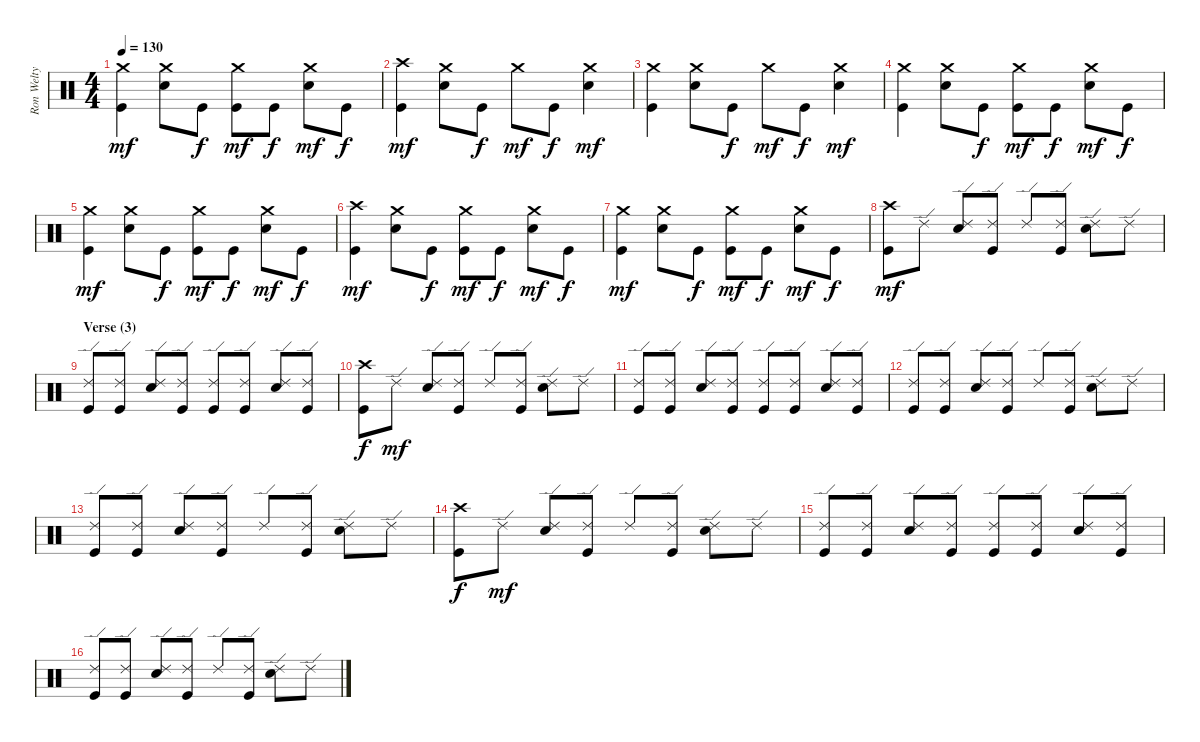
\track ("Ron Welty" "Ron Welty") {instrument percussion}
\staff {score}
\articulation defaults
\ts (4 4)
\tempo 130
\clef neutral
\ks c
("Kick (hit)" "Crash medium (hit)").4{dy mf} ("Electric Snare (hit)" "Crash medium (hit)").8 "Kick (hit)".8{dy f} ("Kick (hit)" "Crash medium (hit)").8{dy mf} "Kick (hit)".8{dy f} ("Electric Snare (hit)" "Crash medium (hit)").8{dy mf} "Kick (hit)".8{dy f} |
("Kick (hit)" "Crash high (hit)").4{dy mf} ("Electric Snare (hit)" "Crash medium (hit)").8 "Kick (hit)".8{dy f} "Crash medium (hit)".8{dy mf} "Kick (hit)".8{dy f} ("Electric Snare (hit)" "Crash medium (hit)").4{dy mf} |
("Kick (hit)" "Crash medium (hit)").4 ("Electric Snare (hit)" "Crash medium (hit)").8 "Kick (hit)".8{dy f} "Crash medium (hit)".8{dy mf} "Kick (hit)".8{dy f} ("Electric Snare (hit)" "Crash medium (hit)").4{dy mf} |
("Kick (hit)" "Crash medium (hit)").4 ("Electric Snare (hit)" "Crash medium (hit)").8 "Kick (hit)".8{dy f} ("Kick (hit)" "Crash medium (hit)").8{dy mf} "Kick (hit)".8{dy f} ("Electric Snare (hit)" "Crash medium (hit)").8{dy mf} "Kick (hit)".8{dy f} |
("Kick (hit)" "Crash medium (hit)").4{dy mf} ("Electric Snare (hit)" "Crash medium (hit)").8 "Kick (hit)".8{dy f} ("Kick (hit)" "Crash medium (hit)").8{dy mf} "Kick (hit)".8{dy f} ("Electric Snare (hit)" "Crash medium (hit)").8{dy mf} "Kick (hit)".8{dy f} |
("Kick (hit)" "Crash high (hit)").4{dy mf} ("Electric Snare (hit)" "Crash medium (hit)").8 "Kick (hit)".8{dy f} ("Kick (hit)" "Crash medium (hit)").8{dy mf} "Kick (hit)".8{dy f} ("Electric Snare (hit)" "Crash medium (hit)").8{dy mf} "Kick (hit)".8{dy f} |
("Kick (hit)" "Crash medium (hit)").4{dy mf} ("Electric Snare (hit)" "Crash medium (hit)").8 "Kick (hit)".8{dy f} ("Kick (hit)" "Crash medium (hit)").8{dy mf} "Kick (hit)".8{dy f} ("Electric Snare (hit)" "Crash medium (hit)").8{dy mf} "Kick (hit)".8{dy f} |
("Kick (hit)" "Crash high (hit)").8{dy mf} "Ride (edge) 2".8 ("Electric Snare (hit)" "Ride (edge) 2").8 ("Kick (hit)" "Ride (edge) 2").8 "Ride (edge) 2".8 ("Kick (hit)" "Ride (edge) 2").8 ("Electric Snare (hit)" "Ride (edge) 2").8 "Ride (edge) 2".8 |
\section ("" "Verse (3)")
("Kick (hit)" "Ride (edge) 2").8 ("Kick (hit)" "Ride (edge) 2").8 ("Electric Snare (hit)" "Ride (edge) 2").8 ("Kick (hit)" "Ride (edge) 2").8 ("Kick (hit)" "Ride (edge) 2").8 ("Kick (hit)" "Ride (edge) 2").8 ("Electric Snare (hit)" "Ride (edge) 2").8 ("Kick (hit)" "Ride (edge) 2").8 |
("Kick (hit)" "Crash high (hit)").8{dy f} "Ride (edge) 2".8{dy mf} ("Electric Snare (hit)" "Ride (edge) 2").8 ("Kick (hit)" "Ride (edge) 2").8 "Ride (edge) 2".8 ("Kick (hit)" "Ride (edge) 2").8 ("Electric Snare (hit)" "Ride (edge) 2").8 "Ride (edge) 2".8 |
("Kick (hit)" "Ride (edge) 2").8 ("Kick (hit)" "Ride (edge) 2").8 ("Electric Snare (hit)" "Ride (edge) 2").8 ("Kick (hit)" "Ride (edge) 2").8 ("Kick (hit)" "Ride (edge) 2").8 ("Kick (hit)" "Ride (edge) 2").8 ("Electric Snare (hit)" "Ride (edge) 2").8 ("Kick (hit)" "Ride (edge) 2").8 |
("Kick (hit)" "Ride (edge) 2").8 ("Kick (hit)" "Ride (edge) 2").8 ("Electric Snare (hit)" "Ride (edge) 2").8 ("Kick (hit)" "Ride (edge) 2").8 "Ride (edge) 2".8 ("Kick (hit)" "Ride (edge) 2").8 ("Electric Snare (hit)" "Ride (edge) 2").8 "Ride (edge) 2".8 |
("Kick (hit)" "Ride (edge) 2").8 ("Kick (hit)" "Ride (edge) 2").8 ("Electric Snare (hit)" "Ride (edge) 2").8 ("Kick (hit)" "Ride (edge) 2").8 "Ride (edge) 2".8 ("Kick (hit)" "Ride (edge) 2").8 ("Electric Snare (hit)" "Ride (edge) 2").8 "Ride (edge) 2".8 |
("Kick (hit)" "Crash high (hit)").8{dy f} "Ride (edge) 2".8{dy mf} ("Electric Snare (hit)" "Ride (edge) 2").8 ("Kick (hit)" "Ride (edge) 2").8 "Ride (edge) 2".8 ("Kick (hit)" "Ride (edge) 2").8 ("Electric Snare (hit)" "Ride (edge) 2").8 "Ride (edge) 2".8 |
("Kick (hit)" "Ride (edge) 2").8 ("Kick (hit)" "Ride (edge) 2").8 ("Electric Snare (hit)" "Ride (edge) 2").8 ("Kick (hit)" "Ride (edge) 2").8 ("Kick (hit)" "Ride (edge) 2").8 ("Kick (hit)" "Ride (edge) 2").8 ("Electric Snare (hit)" "Ride (edge) 2").8 ("Kick (hit)" "Ride (edge) 2").8 |
("Kick (hit)" "Ride (edge) 2").8 ("Kick (hit)" "Ride (edge) 2").8 ("Electric Snare (hit)" "Ride (edge) 2").8 ("Kick (hit)" "Ride (edge) 2").8 "Ride (edge) 2".8 ("Kick (hit)" "Ride (edge) 2").8 ("Electric Snare (hit)" "Ride (edge) 2").8 "Ride (edge) 2".8
